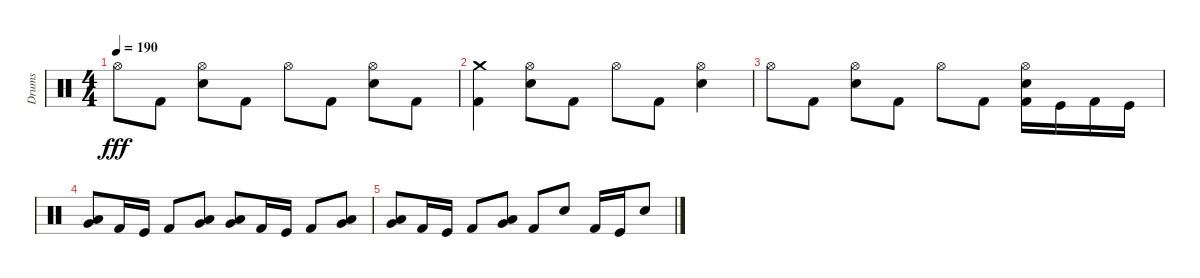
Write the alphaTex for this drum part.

\track ("Drums" "Drums") {instrument percussion}
\staff {score}
\articulation defaults
\ts (4 4)
\tempo 190
\clef neutral
\ks c "Hi-Hat (open)".8{dy fff} "Kick (hit) 2".8
("Hi-Hat (open)" "Electric Snare (hit)").8 "Kick (hit) 2".8 "Hi-Hat (open)".8 "Kick (hit) 2".8 ("Hi-Hat (open)" "Electric Snare (hit)").8 "Kick (hit) 2".8 |
("Crash medium (hit)" "Kick (hit) 2").4 ("Hi-Hat (open)" "Electric Snare (hit)").8 "Kick (hit) 2".8 "Hi-Hat (open)".8 "Kick (hit) 2".8 ("Hi-Hat (open)" "Electric Snare (hit)").4 |
"Hi-Hat (open)".8 "Kick (hit) 2".8 ("Hi-Hat (open)" "Electric Snare (hit)").8 "Kick (hit) 2".8 "Hi-Hat (open)".8 "Kick (hit) 2".8 ("Hi-Hat (open)" "Electric Snare (hit)" "Kick (hit) 2").16 "Kick (hit)".16 "Kick (hit) 2".16 "Kick (hit)".16 |
("Low Tom (hit)" "Very Low Tom (hit)").8 "Kick (hit) 2".16 "Kick (hit)".16 "Kick (hit) 2".8 ("Low Tom (hit)" "Very Low Tom (hit)").8 ("Very Low Tom (hit)" "Low Floor Tom (hit)").8 "Kick (hit) 2".16 "Kick (hit)".16 "Kick (hit) 2".8 ("Low Tom (hit)" "Very Low Tom (hit)").8 |
("Low Tom (hit)" "Very Low Tom (hit)").8 "Kick (hit) 2".16 "Kick (hit)".16 "Kick (hit) 2".8 ("Low Tom (hit)" "Very Low Tom (hit)").8 "Kick (hit) 2".8 "Electric Snare (hit)".8 "Kick (hit) 2".16 "Kick (hit)".16 "Electric Snare (hit)".8
